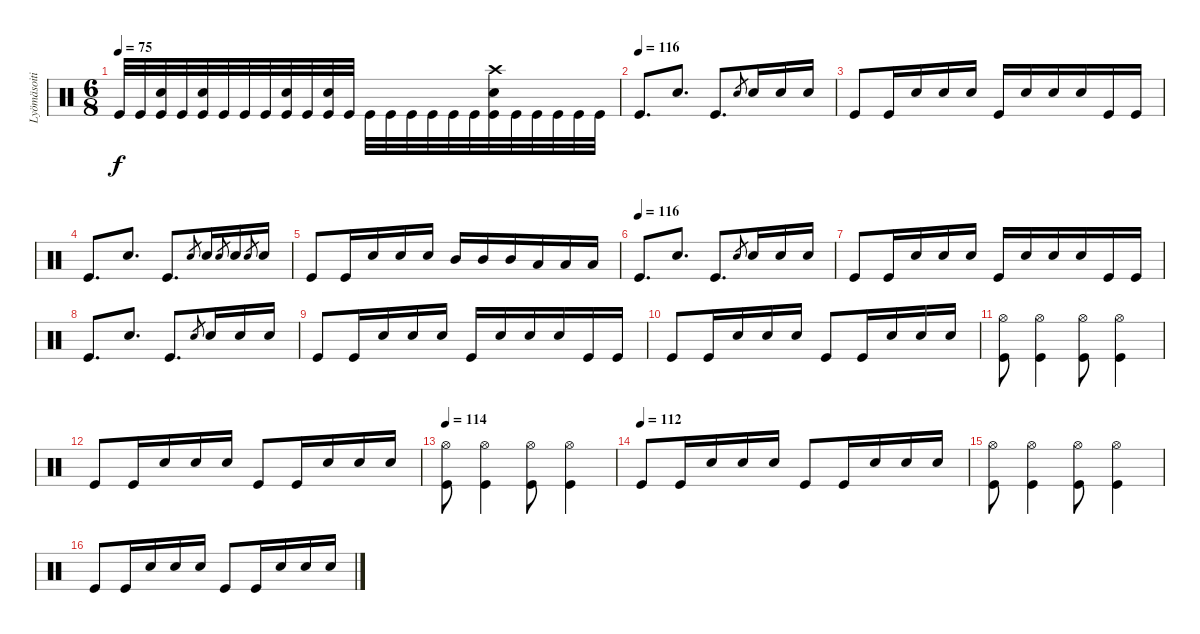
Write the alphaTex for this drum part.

\track ("Lyömäsoitin" "Lyömäsoiti") {instrument percussion}
\staff {score}
\articulation defaults
\ts (6 8)
\tempo 75
\clef neutral
\ks c "Kick (hit)".32{dy f} "Kick (hit)".32
("Snare (hit) 2" "Kick (hit)").32 "Kick (hit)".32 ("Snare (hit) 2" "Kick (hit)").32 "Kick (hit)".32 "Kick (hit)".32 "Kick (hit)".32 ("Snare (hit) 2" "Kick (hit)").32 "Kick (hit)".32 ("Snare (hit) 2" "Kick (hit)").32 "Kick (hit)".32 "Kick (hit)".32 "Kick (hit)".32 "Kick (hit)".32 "Kick (hit)".32 "Kick (hit)".32 "Kick (hit)".32 ("Snare (hit) 2" "Kick (hit)" "Crash high (hit)").32 "Kick (hit)".32 "Kick (hit)".32 "Kick (hit)".32 "Kick (hit)".32 "Kick (hit)".32 |
\tempo (116)
"Kick (hit)".8{d} "Snare (hit) 2".8{d} "Kick (hit)".8{d} "Snare (hit) 2".8{gr} "Snare (hit) 2".16 "Snare (hit) 2".16 "Snare (hit) 2".16 |
"Kick (hit)".8 "Kick (hit)".16 "Snare (hit) 2".16 "Snare (hit) 2".16 "Snare (hit) 2".16 "Kick (hit)".16 "Snare (hit) 2".16 "Snare (hit) 2".16 "Snare (hit) 2".16 "Kick (hit)".16 "Kick (hit)".16 |
"Kick (hit)".8{d} "Snare (hit) 2".8{d} "Kick (hit)".8{d} "Snare (hit) 2".8{gr} "Snare (hit) 2".16 "Snare (hit) 2".8{gr} "Snare (hit) 2".16 "Snare (hit) 2".8{gr} "Snare (hit) 2".16 |
"Kick (hit)".8 "Kick (hit)".16 "Snare (hit) 2".16 "Snare (hit) 2".16 "Snare (hit) 2".16 "Mid Tom (hit)".16 "Mid Tom (hit)".16 "Mid Tom (hit)".16 "Low Tom (hit)".16 "Low Tom (hit)".16 "Low Tom (hit)".16 |
\tempo (116)
"Kick (hit)".8{d} "Snare (hit) 2".8{d} "Kick (hit)".8{d} "Snare (hit) 2".8{gr} "Snare (hit) 2".16 "Snare (hit) 2".16 "Snare (hit) 2".16 |
"Kick (hit)".8 "Kick (hit)".16 "Snare (hit) 2".16 "Snare (hit) 2".16 "Snare (hit) 2".16 "Kick (hit)".16 "Snare (hit) 2".16 "Snare (hit) 2".16 "Snare (hit) 2".16 "Kick (hit)".16 "Kick (hit)".16 |
"Kick (hit)".8{d} "Snare (hit) 2".8{d} "Kick (hit)".8{d} "Snare (hit) 2".8{gr} "Snare (hit) 2".16 "Snare (hit) 2".16 "Snare (hit) 2".16 |
"Kick (hit)".8 "Kick (hit)".16 "Snare (hit) 2".16 "Snare (hit) 2".16 "Snare (hit) 2".16 "Kick (hit)".16 "Snare (hit) 2".16 "Snare (hit) 2".16 "Snare (hit) 2".16 "Kick (hit)".16 "Kick (hit)".16 |
"Kick (hit)".8 "Kick (hit)".16 "Snare (hit) 2".16 "Snare (hit) 2".16 "Snare (hit) 2".16 "Kick (hit)".8 "Kick (hit)".16 "Snare (hit) 2".16 "Snare (hit) 2".16 "Snare (hit) 2".16 |
("Kick (hit)" "Hi-Hat (open)").8 ("Kick (hit)" "Hi-Hat (open)").4 ("Kick (hit)" "Hi-Hat (open)").8 ("Kick (hit)" "Hi-Hat (open)").4 |
"Kick (hit)".8 "Kick (hit)".16 "Snare (hit) 2".16 "Snare (hit) 2".16 "Snare (hit) 2".16 "Kick (hit)".8 "Kick (hit)".16 "Snare (hit) 2".16 "Snare (hit) 2".16 "Snare (hit) 2".16 |
\tempo 114
("Kick (hit)" "Hi-Hat (open)").8 ("Kick (hit)" "Hi-Hat (open)").4 ("Kick (hit)" "Hi-Hat (open)").8 ("Kick (hit)" "Hi-Hat (open)").4 |
\tempo (112)
"Kick (hit)".8 "Kick (hit)".16 "Snare (hit) 2".16 "Snare (hit) 2".16 "Snare (hit) 2".16 "Kick (hit)".8 "Kick (hit)".16 "Snare (hit) 2".16 "Snare (hit) 2".16 "Snare (hit) 2".16 |
("Kick (hit)" "Hi-Hat (open)").8 ("Kick (hit)" "Hi-Hat (open)").4 ("Kick (hit)" "Hi-Hat (open)").8 ("Kick (hit)" "Hi-Hat (open)").4 |
"Kick (hit)".8 "Kick (hit)".16 "Snare (hit) 2".16 "Snare (hit) 2".16 "Snare (hit) 2".16 "Kick (hit)".8 "Kick (hit)".16 "Snare (hit) 2".16 "Snare (hit) 2".16 "Snare (hit) 2".16
